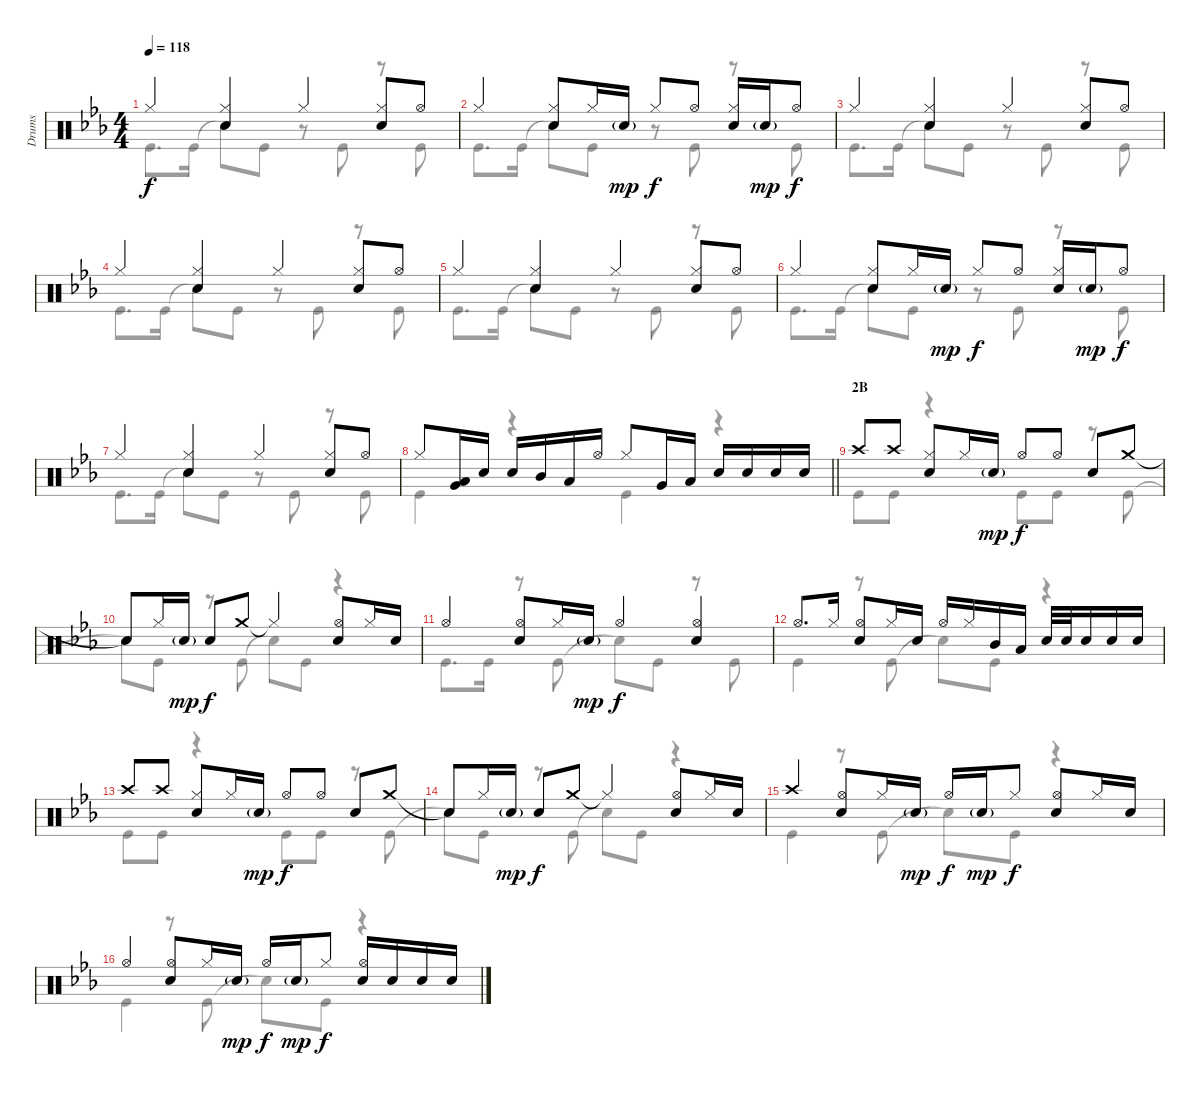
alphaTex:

\track ("Drums" "Drums") {instrument percussion}
\staff {score}
\articulation defaults
\voice
\ts (4 4)
\tempo 118
\clef neutral
\ks eb "Hi-Hat (closed)".4{dy f}
("Hi-Hat (closed)" "Snare (hit) 2").4 "Hi-Hat (closed)".4 ("Hi-Hat (closed)" "Snare (hit) 2").8 "Hi-Hat (open)".8 |
"Hi-Hat (closed)".4 ("Hi-Hat (closed)" "Snare (hit) 2").8 "Hi-Hat (closed)".16 "Snare (hit) 2"{g}.16{dy mp} "Hi-Hat (closed)".8{dy f} "Hi-Hat (open)".8 ("Hi-Hat (closed)" "Snare (hit) 2").16 "Snare (hit) 2"{g}.16{dy mp} "Hi-Hat (open)".8{dy f} |
"Hi-Hat (closed)".4 ("Hi-Hat (closed)" "Snare (hit) 2").4 "Hi-Hat (closed)".4 ("Hi-Hat (closed)" "Snare (hit) 2").8 "Hi-Hat (open)".8 |
"Hi-Hat (closed)".4 ("Hi-Hat (closed)" "Snare (hit) 2").4 "Hi-Hat (closed)".4 ("Hi-Hat (closed)" "Snare (hit) 2").8 "Hi-Hat (open)".8 |
"Hi-Hat (closed)".4 ("Hi-Hat (closed)" "Snare (hit) 2").4 "Hi-Hat (closed)".4 ("Hi-Hat (closed)" "Snare (hit) 2").8 "Hi-Hat (open)".8 |
"Hi-Hat (closed)".4 ("Hi-Hat (closed)" "Snare (hit) 2").8 "Hi-Hat (closed)".16 "Snare (hit) 2"{g}.16{dy mp} "Hi-Hat (closed)".8{dy f} "Hi-Hat (open)".8 ("Hi-Hat (closed)" "Snare (hit) 2").16 "Snare (hit) 2"{g}.16{dy mp} "Hi-Hat (open)".8{dy f} |
"Hi-Hat (closed)".4 ("Hi-Hat (closed)" "Snare (hit) 2").4 "Hi-Hat (closed)".4 ("Hi-Hat (closed)" "Snare (hit) 2").8 "Hi-Hat (open)".8 |
\barLineRight lightlight "Hi-Hat (closed)".8
("Low Tom (hit)" "Very Low Tom (hit)").16 "Snare (hit) 2".16 "Snare (hit) 2".16 "Mid Tom (hit)".16 "Low Tom (hit)".16 "Hi-Hat (open)".16 "Hi-Hat (closed)".8 "Very Low Tom (hit)".16 "Low Tom (hit)".16 "Snare (hit) 2".16 "Snare (hit) 2".16 "Snare (hit) 2".16 "Snare (hit) 2".16 |
\section ("" "2B")
"Crash high (hit)".8 "Crash high (hit)".8 ("Hi-Hat (closed)" "Snare (hit) 2").8 "Hi-Hat (closed)".16 "Snare (hit) 2"{g}.16{dy mp} "Hi-Hat (open)".8{dy f} "Hi-Hat (open)".8 "Snare (hit) 2".8 "Crash medium (hit)".8 |
"Snare (hit)"{t}.8 "Hi-Hat (closed)".16 "Snare (hit) 2"{g}.16{dy mp} "Snare (hit) 2".8{dy f} "Crash medium (hit)".8 "Hi-Hat (closed)"{t}.4 ("Hi-Hat (open)" "Snare (hit) 2").8 "Hi-Hat (closed)".16 "Snare (hit) 2".16 |
"Hi-Hat (open)".4 ("Hi-Hat (open)" "Snare (hit) 2").8 "Hi-Hat (closed)".16 "Snare (hit) 2"{g}.16{dy mp} "Hi-Hat (open)".4{dy f} ("Hi-Hat (open)" "Snare (hit) 2").4 |
"Hi-Hat (open)".8{d} "Hi-Hat (closed)".16 ("Hi-Hat (open)" "Snare (hit) 2").8 "Hi-Hat (closed)".16 "Snare (hit) 2".16 "Hi-Hat (open)".16 "Hi-Hat (closed)".16 "Mid Tom (hit)".16 "Low Tom (hit)".16 "Snare (hit) 2".32 "Snare (hit) 2".32 "Snare (hit) 2".16 "Snare (hit) 2".16 "Snare (hit) 2".16 |
"Crash high (hit)".8 "Crash high (hit)".8 ("Hi-Hat (closed)" "Snare (hit) 2").8 "Hi-Hat (closed)".16 "Snare (hit) 2"{g}.16{dy mp} "Hi-Hat (open)".8{dy f} "Hi-Hat (open)".8 "Snare (hit) 2".8 "Crash medium (hit)".8 |
"Snare (hit)"{t}.8 "Hi-Hat (closed)".16 "Snare (hit) 2"{g}.16{dy mp} "Snare (hit) 2".8{dy f} "Crash medium (hit)".8 "Hi-Hat (closed)"{t}.4 ("Hi-Hat (open)" "Snare (hit) 2").8 "Hi-Hat (closed)".16 "Snare (hit) 2".16 |
"Crash high (hit)".4 ("Hi-Hat (open)" "Snare (hit) 2").8 "Hi-Hat (closed)".16 "Snare (hit) 2"{g}.16{dy mp} "Hi-Hat (open)".16{dy f} "Snare (hit) 2"{g}.16{dy mp} "Hi-Hat (closed)".8{dy f} ("Hi-Hat (open)" "Snare (hit) 2").8 "Hi-Hat (closed)".16 "Snare (hit) 2".16 |
"Hi-Hat (open)".4 ("Hi-Hat (open)" "Snare (hit) 2").8 "Hi-Hat (closed)".16 "Snare (hit) 2"{g}.16{dy mp} "Hi-Hat (open)".16{dy f} "Snare (hit) 2"{g}.16{dy mp} "Hi-Hat (closed)".8{dy f} ("Hi-Hat (open)" "Snare (hit) 2").16 "Snare (hit) 2".16 "Snare (hit) 2".16 "Snare (hit) 2".16
\voice
\clef neutral
\ottava regular
\simile none
\ks eb "Kick (hit)".8{d dy f} "Kick (hit)".16 "Snare (hit)"{t}.8 "Kick (hit)".8
r.8 "Kick (hit)".8 r.8 "Kick (hit)".8 |
"Kick (hit)".8{d} "Kick (hit)".16 "Snare (hit)"{t}.8 "Kick (hit)".8 r.8 "Kick (hit)".8 r.8 "Kick (hit)".8 |
"Kick (hit)".8{d} "Kick (hit)".16 "Snare (hit)"{t}.8 "Kick (hit)".8 r.8 "Kick (hit)".8 r.8 "Kick (hit)".8 |
"Kick (hit)".8{d} "Kick (hit)".16 "Snare (hit)"{t}.8 "Kick (hit)".8 r.8 "Kick (hit)".8 r.8 "Kick (hit)".8 |
"Kick (hit)".8{d} "Kick (hit)".16 "Snare (hit)"{t}.8 "Kick (hit)".8 r.8 "Kick (hit)".8 r.8 "Kick (hit)".8 |
"Kick (hit)".8{d} "Kick (hit)".16 "Snare (hit)"{t}.8 "Kick (hit)".8 r.8 "Kick (hit)".8 r.8 "Kick (hit)".8 |
"Kick (hit)".8{d} "Kick (hit)".16 "Snare (hit)"{t}.8 "Kick (hit)".8 r.8 "Kick (hit)".8 r.8 "Kick (hit)".8 |
\barLineRight lightlight "Kick (hit)".4
r.4 "Kick (hit)".4 r.4 |
"Kick (hit)".8 "Kick (hit)".8 r.4 "Kick (hit)".8 "Kick (hit)".8 r.8 "Kick (hit)".8 |
"Snare (hit)"{t}.8 "Kick (hit)".8 r.8 "Kick (hit)".8 "Snare (hit)"{t}.8 "Kick (hit)".8 r.4 |
"Kick (hit)".8{d} "Kick (hit)".16 r.8 "Kick (hit)".8 "Snare (hit)"{t}.8 "Kick (hit)".8 r.8 "Kick (hit)".8 |
"Kick (hit)".4 r.8 "Kick (hit)".8 "Snare (hit)"{t}.8 "Kick (hit)".8 r.4 |
"Kick (hit)".8 "Kick (hit)".8 r.4 "Kick (hit)".8 "Kick (hit)".8 r.8 "Kick (hit)".8 |
"Snare (hit)"{t}.8 "Kick (hit)".8 r.8 "Kick (hit)".8 "Snare (hit)"{t}.8 "Kick (hit)".8 r.4 |
"Kick (hit)".4 r.8 "Kick (hit)".8 "Snare (hit)"{t}.8 "Kick (hit)".8 r.4 |
"Kick (hit)".4 r.8 "Kick (hit)".8 "Snare (hit)"{t}.8 "Kick (hit)".8 r.4
